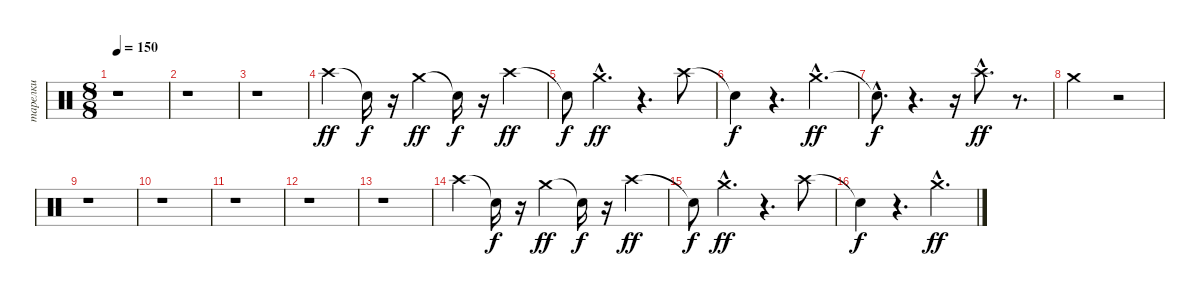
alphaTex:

\track ("тарелки" "тарелки") {instrument percussion}
\staff {score}
\articulation defaults
\ts (8 8)
\tempo 150
\clef neutral
\ks c
r.1{dy ff} |
r.1 |
r.1 |
"Crash high (hit)".4 "Snare (hit)"{t}.16{dy f} r.16 "Crash medium (hit)".4{dy ff} "Snare (hit)"{t}.16{dy f} r.16 "Crash high (hit)".4{dy ff} |
"Snare (hit)"{t}.8{dy f} "Crash medium (hit)"{hac}.4{d dy ff} r.4{d} "Crash high (hit)".8 |
"Snare (hit)"{t}.4{dy f} r.4{d} "Crash medium (hit)"{hac}.4{d dy ff} |
"Snare (hit)"{hac t}.8{d dy f} r.4{d} r.16 "Crash high (hit)"{hac}.8{d dy ff} r.8{d} |
"Crash medium (hit)".2 r.2 |
r.1 |
r.1 |
r.1 |
r.1 |
r.1 |
"Crash high (hit)".4 "Snare (hit)"{t}.16{dy f} r.16 "Crash medium (hit)".4{dy ff} "Snare (hit)"{t}.16{dy f} r.16 "Crash high (hit)".4{dy ff} |
"Snare (hit)"{t}.8{dy f} "Crash medium (hit)"{hac}.4{d dy ff} r.4{d} "Crash high (hit)".8 |
"Snare (hit)"{t}.4{dy f} r.4{d} "Crash medium (hit)"{hac}.4{d dy ff}
